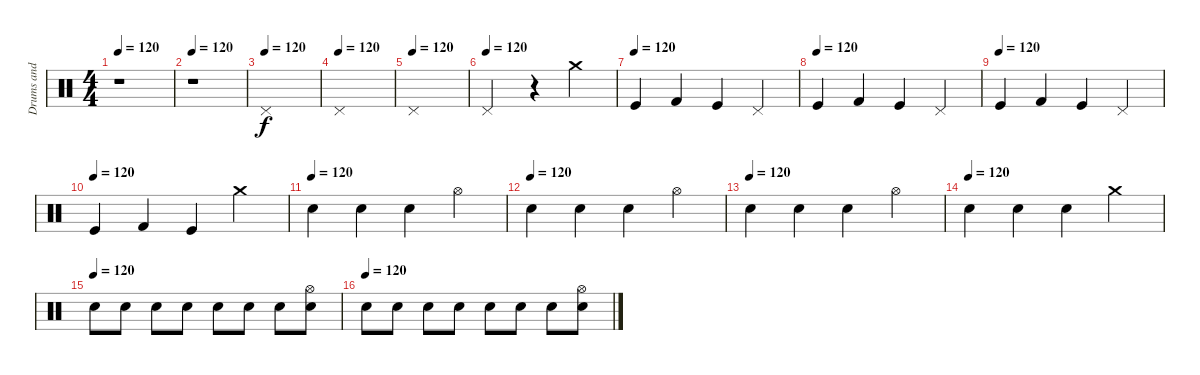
\track ("Drums and Percussion" "Drums and ") {instrument percussion}
\staff {score}
\articulation defaults
\ts (4 4)
\tempo 120
\clef neutral
\ks c
r.1{dy f} |
\tempo 120
r.1 |
\tempo (120)
"Pedal Hi-Hat (hit)".1 |
\tempo (120)
"Pedal Hi-Hat (hit)".1 |
\tempo (120)
"Pedal Hi-Hat (hit)".1 |
\tempo (120)
"Pedal Hi-Hat (hit)".2 r.4 "Crash medium (hit)".4 |
\tempo (120)
"Kick (hit)".4 "Kick (hit) 2".4 "Kick (hit)".4 "Pedal Hi-Hat (hit)".4 |
\tempo (120)
"Kick (hit)".4 "Kick (hit) 2".4 "Kick (hit)".4 "Pedal Hi-Hat (hit)".4 |
\tempo (120)
"Kick (hit)".4 "Kick (hit) 2".4 "Kick (hit)".4 "Pedal Hi-Hat (hit)".4 |
\tempo (120)
"Kick (hit)".4 "Kick (hit) 2".4 "Kick (hit)".4 "Crash medium (hit)".4 |
\tempo (120)
"Electric Snare (hit)".4 "Electric Snare (hit)".4 "Snare (hit) 2".4 "Hi-Hat (open)".4 |
\tempo (120)
"Electric Snare (hit)".4 "Electric Snare (hit)".4 "Snare (hit) 2".4 "Hi-Hat (open)".4 |
\tempo (120)
"Electric Snare (hit)".4 "Electric Snare (hit)".4 "Snare (hit) 2".4 "Hi-Hat (open)".4 |
\tempo (120)
"Electric Snare (hit)".4 "Electric Snare (hit)".4 "Snare (hit) 2".4 "Crash medium (hit)".4 |
\tempo (120)
"Electric Snare (hit)".8 "Electric Snare (hit)".8 "Snare (hit) 2".8 "Snare (hit) 2".8 "Electric Snare (hit)".8 "Electric Snare (hit)".8 "Snare (hit) 2".8 ("Hi-Hat (open)" "Snare (hit) 2").8 |
\tempo (120)
"Electric Snare (hit)".8 "Electric Snare (hit)".8 "Snare (hit) 2".8 "Snare (hit) 2".8 "Electric Snare (hit)".8 "Electric Snare (hit)".8 "Snare (hit) 2".8 ("Hi-Hat (open)" "Snare (hit) 2").8
